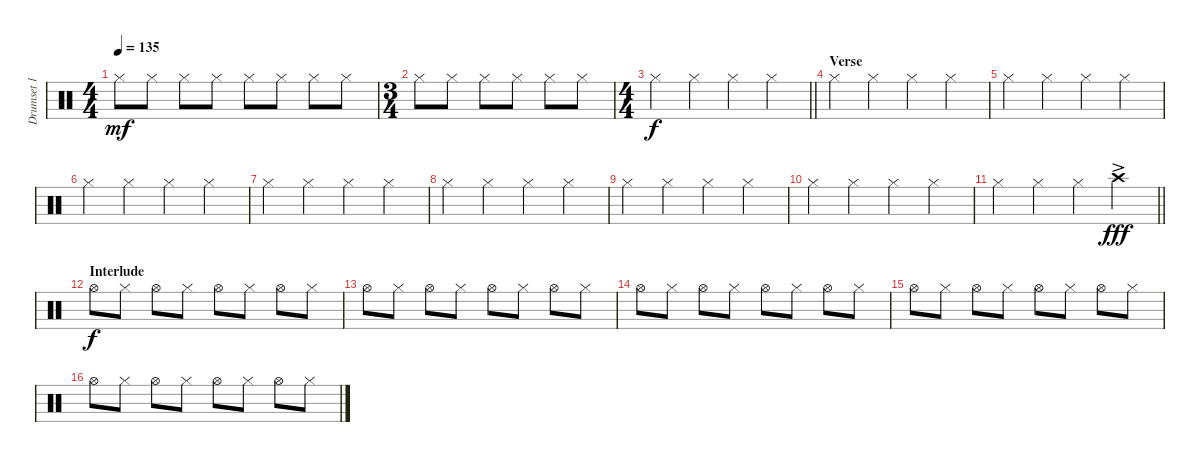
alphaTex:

\track ("Drumset 1" "Drumset 1") {instrument percussion}
\staff {score}
\articulation defaults
\ts (4 4)
\tempo 135
\clef neutral
\ks c "Hi-Hat (closed)".8{dy mf} "Hi-Hat (closed)".8 "Hi-Hat (closed)".8 "Hi-Hat (closed)".8 "Hi-Hat (closed)".8 "Hi-Hat (closed)".8 "Hi-Hat (closed)".8 "Hi-Hat (closed)".8
|
\ts (3 4)
"Hi-Hat (closed)".8 "Hi-Hat (closed)".8 "Hi-Hat (closed)".8 "Hi-Hat (closed)".8 "Hi-Hat (closed)".8 "Hi-Hat (closed)".8 |
\ts (4 4)
\barLineRight lightlight "Hi-Hat (closed)".4{dy f} "Hi-Hat (closed)".4 "Hi-Hat (closed)".4 "Hi-Hat (closed)".4
|
\section ("" "Verse")
"Hi-Hat (closed)".4 "Hi-Hat (closed)".4 "Hi-Hat (closed)".4 "Hi-Hat (closed)".4 |
"Hi-Hat (closed)".4 "Hi-Hat (closed)".4 "Hi-Hat (closed)".4 "Hi-Hat (closed)".4 |
"Hi-Hat (closed)".4 "Hi-Hat (closed)".4 "Hi-Hat (closed)".4 "Hi-Hat (closed)".4 |
"Hi-Hat (closed)".4 "Hi-Hat (closed)".4 "Hi-Hat (closed)".4 "Hi-Hat (closed)".4 |
"Hi-Hat (closed)".4 "Hi-Hat (closed)".4 "Hi-Hat (closed)".4 "Hi-Hat (closed)".4 |
"Hi-Hat (closed)".4 "Hi-Hat (closed)".4 "Hi-Hat (closed)".4 "Hi-Hat (closed)".4 |
"Hi-Hat (closed)".4 "Hi-Hat (closed)".4 "Hi-Hat (closed)".4 "Hi-Hat (closed)".4 |
\barLineRight lightlight "Hi-Hat (closed)".4 "Hi-Hat (closed)".4 "Hi-Hat (closed)".4 "Crash high (hit)"{ac}.4{dy fff}
|
\section ("" "Interlude")
"Hi-Hat (open)".8{dy f} "Hi-Hat (closed)".8 "Hi-Hat (open)".8 "Hi-Hat (closed)".8 "Hi-Hat (open)".8 "Hi-Hat (closed)".8 "Hi-Hat (open)".8 "Hi-Hat (closed)".8 |
"Hi-Hat (open)".8 "Hi-Hat (closed)".8 "Hi-Hat (open)".8 "Hi-Hat (closed)".8 "Hi-Hat (open)".8 "Hi-Hat (closed)".8 "Hi-Hat (open)".8 "Hi-Hat (closed)".8 |
"Hi-Hat (open)".8 "Hi-Hat (closed)".8 "Hi-Hat (open)".8 "Hi-Hat (closed)".8 "Hi-Hat (open)".8 "Hi-Hat (closed)".8 "Hi-Hat (open)".8 "Hi-Hat (closed)".8 |
"Hi-Hat (open)".8 "Hi-Hat (closed)".8 "Hi-Hat (open)".8 "Hi-Hat (closed)".8 "Hi-Hat (open)".8 "Hi-Hat (closed)".8 "Hi-Hat (open)".8 "Hi-Hat (closed)".8 |
"Hi-Hat (open)".8 "Hi-Hat (closed)".8 "Hi-Hat (open)".8 "Hi-Hat (closed)".8 "Hi-Hat (open)".8 "Hi-Hat (closed)".8 "Hi-Hat (open)".8 "Hi-Hat (closed)".8
